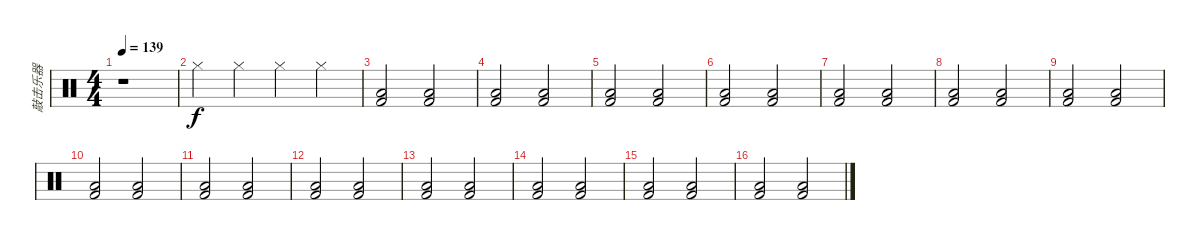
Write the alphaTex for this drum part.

\track ("敲击乐器" "敲击乐器") {instrument percussion}
\staff {score}
\articulation defaults
\ts (4 4)
\tempo 139
\clef neutral
\ks c
r.1{dy f} |
"Hi-Hat (closed)".4 "Hi-Hat (closed)".4 "Hi-Hat (closed)".4 "Hi-Hat (closed)".4 |
("Low Floor Tom (hit)" "Kick (hit) 2").2 ("Low Floor Tom (hit)" "Kick (hit) 2").2 |
("Low Floor Tom (hit)" "Kick (hit) 2").2 ("Low Floor Tom (hit)" "Kick (hit) 2").2 |
("Low Floor Tom (hit)" "Kick (hit) 2").2 ("Low Floor Tom (hit)" "Kick (hit) 2").2 |
("Low Floor Tom (hit)" "Kick (hit) 2").2 ("Low Floor Tom (hit)" "Kick (hit) 2").2 |
("Low Floor Tom (hit)" "Kick (hit) 2").2 ("Low Floor Tom (hit)" "Kick (hit) 2").2 |
("Low Floor Tom (hit)" "Kick (hit) 2").2 ("Low Floor Tom (hit)" "Kick (hit) 2").2 |
("Low Floor Tom (hit)" "Kick (hit) 2").2 ("Low Floor Tom (hit)" "Kick (hit) 2").2 |
("Low Floor Tom (hit)" "Kick (hit) 2").2 ("Low Floor Tom (hit)" "Kick (hit) 2").2 |
("Low Floor Tom (hit)" "Kick (hit) 2").2 ("Low Floor Tom (hit)" "Kick (hit) 2").2 |
("Low Floor Tom (hit)" "Kick (hit) 2").2 ("Low Floor Tom (hit)" "Kick (hit) 2").2 |
("Low Floor Tom (hit)" "Kick (hit) 2").2 ("Low Floor Tom (hit)" "Kick (hit) 2").2 |
("Low Floor Tom (hit)" "Kick (hit) 2").2 ("Low Floor Tom (hit)" "Kick (hit) 2").2 |
("Low Floor Tom (hit)" "Kick (hit) 2").2 ("Low Floor Tom (hit)" "Kick (hit) 2").2 |
("Low Floor Tom (hit)" "Kick (hit) 2").2 ("Low Floor Tom (hit)" "Kick (hit) 2").2
